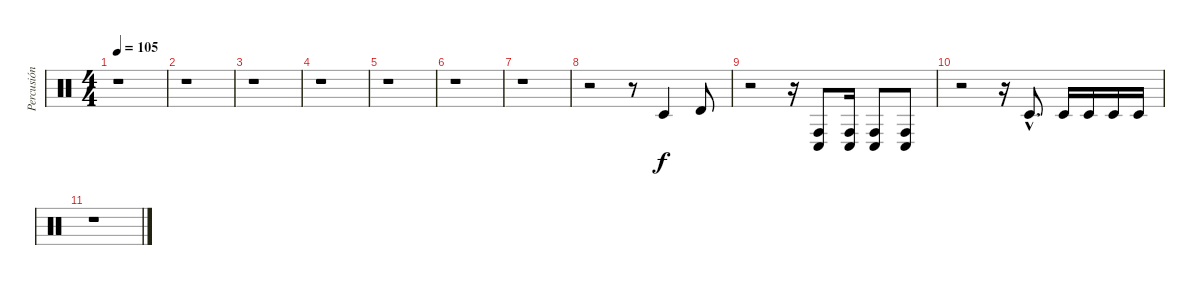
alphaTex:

\track ("Percusión" "Percusión") {instrument percussion}
\staff {score}
\articulation defaults
\ts (4 4)
\tempo 105
\clef neutral
\ks c
r.1{dy f} |
r.1 |
r.1 |
r.1 |
r.1 |
r.1 |
r.1 |
r.2 r.8 "Timbale low (hit)".4 "Timbale high (hit)".8 |
r.2 r.16 ("Conga high (hit)" "Conga low (hit)").8 ("Conga high (hit)" "Conga low (hit)").16 ("Conga high (hit)" "Conga low (hit)").8 ("Conga high (hit)" "Conga low (hit)").8 |
r.2 r.16 "Timbale low (hit)"{hac}.8{d} "Timbale low (hit)".16 "Timbale low (hit)".16 "Timbale low (hit)".16 "Timbale low (hit)".16 |
r.1
